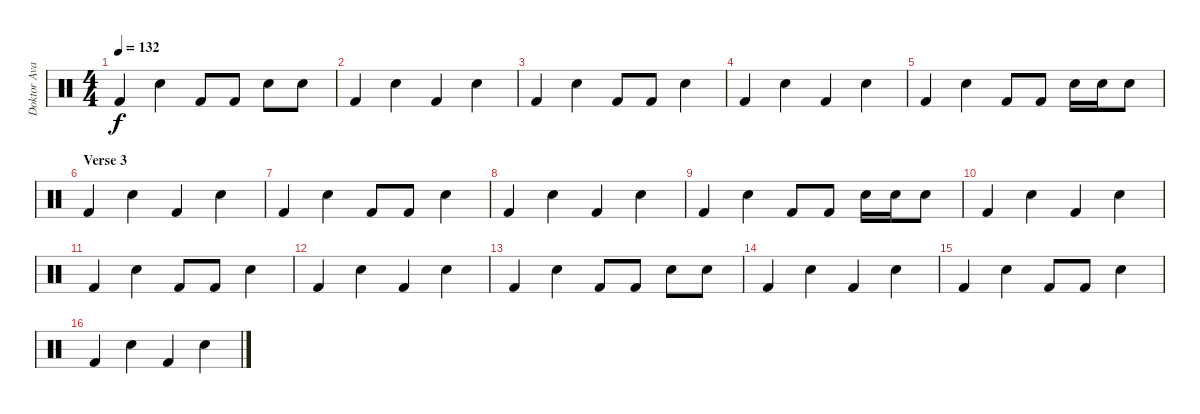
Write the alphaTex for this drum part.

\track ("Doktor Avalanche" "Doktor Ava") {instrument percussion}
\staff {score}
\articulation defaults
\ts (4 4)
\tempo 132
\clef neutral
\ks c "Kick (hit) 2".4{dy f} "Electric Snare (hit)".4 "Kick (hit) 2".8 "Kick (hit) 2".8 "Electric Snare (hit)".8 "Electric Snare (hit)".8
|
"Kick (hit) 2".4 "Electric Snare (hit)".4 "Kick (hit) 2".4 "Electric Snare (hit)".4 |
"Kick (hit) 2".4 "Electric Snare (hit)".4 "Kick (hit) 2".8 "Kick (hit) 2".8 "Electric Snare (hit)".4 |
"Kick (hit) 2".4 "Electric Snare (hit)".4 "Kick (hit) 2".4 "Electric Snare (hit)".4 |
"Kick (hit) 2".4 "Electric Snare (hit)".4 "Kick (hit) 2".8 "Kick (hit) 2".8 "Electric Snare (hit)".16 "Electric Snare (hit)".16 "Electric Snare (hit)".8 |
\section ("" "Verse 3")
"Kick (hit) 2".4 "Electric Snare (hit)".4 "Kick (hit) 2".4 "Electric Snare (hit)".4 |
"Kick (hit) 2".4 "Electric Snare (hit)".4 "Kick (hit) 2".8 "Kick (hit) 2".8 "Electric Snare (hit)".4 |
"Kick (hit) 2".4 "Electric Snare (hit)".4 "Kick (hit) 2".4 "Electric Snare (hit)".4 |
"Kick (hit) 2".4 "Electric Snare (hit)".4 "Kick (hit) 2".8 "Kick (hit) 2".8 "Electric Snare (hit)".16 "Electric Snare (hit)".16 "Electric Snare (hit)".8 |
"Kick (hit) 2".4 "Electric Snare (hit)".4 "Kick (hit) 2".4 "Electric Snare (hit)".4 |
"Kick (hit) 2".4 "Electric Snare (hit)".4 "Kick (hit) 2".8 "Kick (hit) 2".8 "Electric Snare (hit)".4 |
"Kick (hit) 2".4 "Electric Snare (hit)".4 "Kick (hit) 2".4 "Electric Snare (hit)".4 |
"Kick (hit) 2".4 "Electric Snare (hit)".4 "Kick (hit) 2".8 "Kick (hit) 2".8 "Electric Snare (hit)".8 "Electric Snare (hit)".8 |
"Kick (hit) 2".4 "Electric Snare (hit)".4 "Kick (hit) 2".4 "Electric Snare (hit)".4 |
"Kick (hit) 2".4 "Electric Snare (hit)".4 "Kick (hit) 2".8 "Kick (hit) 2".8 "Electric Snare (hit)".4 |
"Kick (hit) 2".4 "Electric Snare (hit)".4 "Kick (hit) 2".4 "Electric Snare (hit)".4
